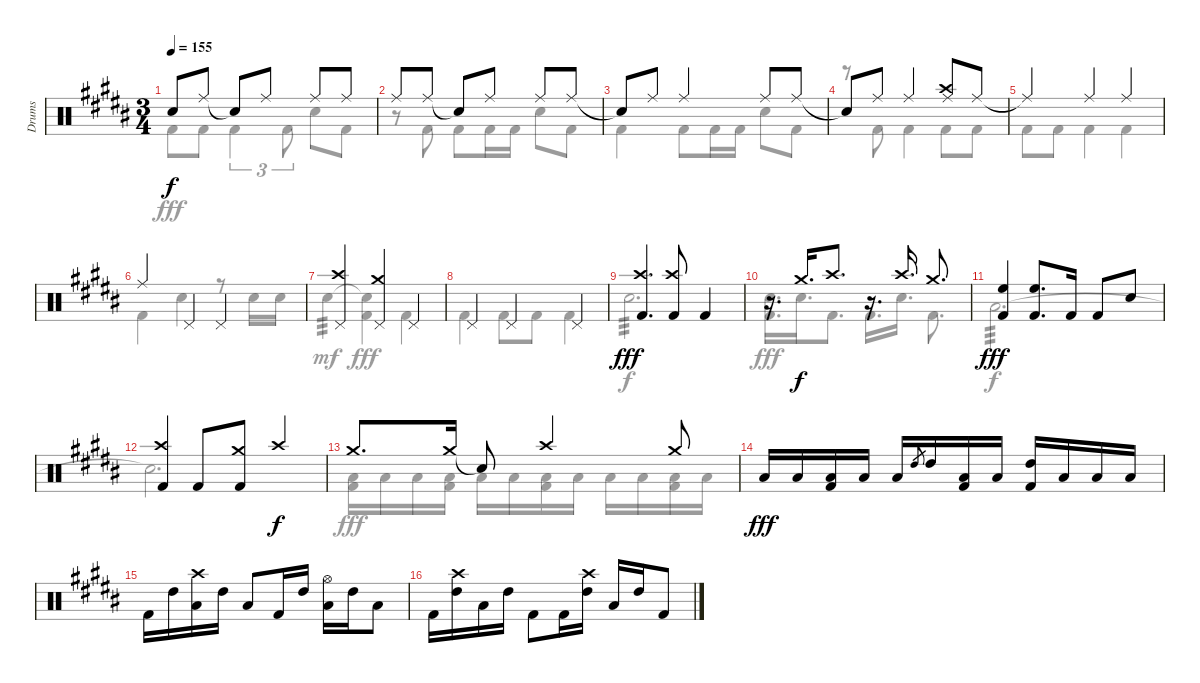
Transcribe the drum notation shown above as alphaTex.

\track ("Drums" "Drums") {instrument percussion}
\staff {score}
\articulation defaults
\voice
\ts (3 4)
\tempo 155
\clef neutral
\ks b "Snare (hit)"{t}.8{dy f} "Ride (middle)".8 "Snare (hit)"{t}.8 "Ride (middle)".8 "Ride (middle)".8 "Ride (middle)".8
|
"Ride (middle)".8 "Ride (middle)".8 "Snare (hit)"{t}.8 "Ride (middle)".8 "Ride (middle)".8 "Ride (middle)".8 |
"Snare (hit)"{t}.8 "Ride (middle)".8 "Ride (middle)".4 "Ride (middle)".8 "Ride (middle)".8 |
"Snare (hit)"{t}.8 "Ride (middle)".8 "Ride (middle)".4 ("Ride (middle)" "Crash high (hit)").8 "Ride (middle)".8 |
"Ride (middle)"{t}.4 "Ride (middle)".4 "Ride (middle)".4 |
"Ride (middle)".4 "Pedal Hi-Hat (hit)".4 "Pedal Hi-Hat (hit)".4 |
("Pedal Hi-Hat (hit)" "Crash high (hit)").4 ("Pedal Hi-Hat (hit)" "Crash medium (hit)").4 "Pedal Hi-Hat (hit)".4 |
"Pedal Hi-Hat (hit)".4 "Pedal Hi-Hat (hit)".4 "Pedal Hi-Hat (hit)".4 |
("Crash high (hit)" "Kick (hit) 2").4{d dy fff} ("Crash high (hit)" "Kick (hit) 2").8 "Kick (hit) 2".4 |
r.16{d} "Crash medium (hit)".16{d dy f} "Crash high (hit)".8{d} r.16{d} "Crash high (hit)".16{d} "Crash medium (hit)".8{d} |
("High Floor Tom (hit)" "Kick (hit) 2").4{dy fff} ("High Floor Tom (hit)" "Kick (hit) 2").8{d} "Kick (hit) 2".16 "Kick (hit) 2".8 "Snare (hit) 2".8 |
("Crash high (hit)" "Kick (hit) 2").4 "Kick (hit) 2".8 ("Crash medium (hit)" "Kick (hit) 2").8 "Crash high (hit)".4{dy f} |
"Crash medium (hit)".8{d} "Crash medium (hit)".16 "Snare (hit)"{t}.8 "Crash high (hit)".4 "Crash medium (hit)".8 |
"Low Tom (hit)".16{dy fff} "Low Tom (hit)".16 ("Low Tom (hit)" "Kick (hit) 2").16 "Low Tom (hit)".16 "Low Tom (hit)".16 "High Tom (hit)".8{gr} "High Tom (hit)".16 ("Low Tom (hit)" "Kick (hit) 2").16 "Low Tom (hit)".16 ("High Tom (hit)" "Kick (hit) 2").16 "Low Tom (hit)".16 "Low Tom (hit)".16 "Low Tom (hit)".16 |
"Kick (hit) 2".16 "High Tom (hit)".16 ("Crash high (hit)" "Low Tom (hit)").16 "High Tom (hit)".16 "Low Floor Tom (hit)".8 "Kick (hit) 2".16 "High Tom (hit)".16 ("Hi-Hat (open)" "Low Tom (hit)").16 "High Tom (hit)".16 "Low Floor Tom (hit)".8 |
"Kick (hit) 2".16 ("Crash high (hit)" "High Tom (hit)").16 "Low Tom (hit)".16 "High Tom (hit)".16 "Kick (hit) 2".8 "Kick (hit) 2".16 ("Crash high (hit)" "High Tom (hit)").16 "Low Tom (hit)".16 "High Tom (hit)".16 "Kick (hit) 2".8
\voice
\clef neutral
\ottava regular
\simile none
\ks b "Kick (hit) 2".8{dy fff} "Kick (hit) 2".8 "Kick (hit) 2".4{tu (3 2)} "Kick (hit) 2".8{tu (3 2)} "Snare (hit) 2".8 "Kick (hit) 2".8
|
r.8 "Kick (hit) 2".8 "Kick (hit) 2".8 "Kick (hit) 2".16 "Kick (hit) 2".16 "Snare (hit) 2".8 "Kick (hit) 2".8 |
"Kick (hit) 2".4 "Kick (hit) 2".8 "Kick (hit) 2".16 "Kick (hit) 2".16 "Snare (hit) 2".8 "Kick (hit) 2".8 |
r.8 "Kick (hit) 2".8 "Kick (hit) 2".4 "Kick (hit) 2".8 "Kick (hit) 2".8 |
"Kick (hit) 2".8 "Kick (hit) 2".8 "Kick (hit) 2".4 "Kick (hit) 2".4 |
"Kick (hit) 2".4 "Snare (hit) 2".4 r.8 "Snare (hit) 2".16 "Snare (hit) 2".16 |
"Snare (hit) 2".4{tp 3 dy mf} ("Snare (hit)"{t} "Kick (hit) 2").4{dy fff} "Kick (hit) 2".4 |
"Kick (hit) 2".4 "Kick (hit) 2".8 "Kick (hit) 2".8 "Kick (hit) 2".4 |
"Snare (hit) 2".2{d tp 3 dy f} |
("Snare (hit) 2" "Kick (hit) 2").16{d dy fff} "Snare (hit) 2".16{d} "Kick (hit) 2".8{d} "Kick (hit) 2".16{d} "Snare (hit) 2".16{d} "Kick (hit) 2".8{d} |
"Low Tom (hit)".2{d tp 3 dy f} |
"Snare (hit)"{t}.2{d} |
("Low Tom (hit)" "Kick (hit) 2").16{dy fff} "Low Tom (hit)".16 "Low Tom (hit)".16 ("Low Tom (hit)" "Kick (hit) 2").16 "Low Tom (hit)".16 "Low Tom (hit)".16 ("Low Tom (hit)" "Kick (hit) 2").16 "Low Tom (hit)".16 "Low Tom (hit)".16 "Low Tom (hit)".16 ("Low Tom (hit)" "Kick (hit) 2").16 "Low Tom (hit)".16 |
|
|
